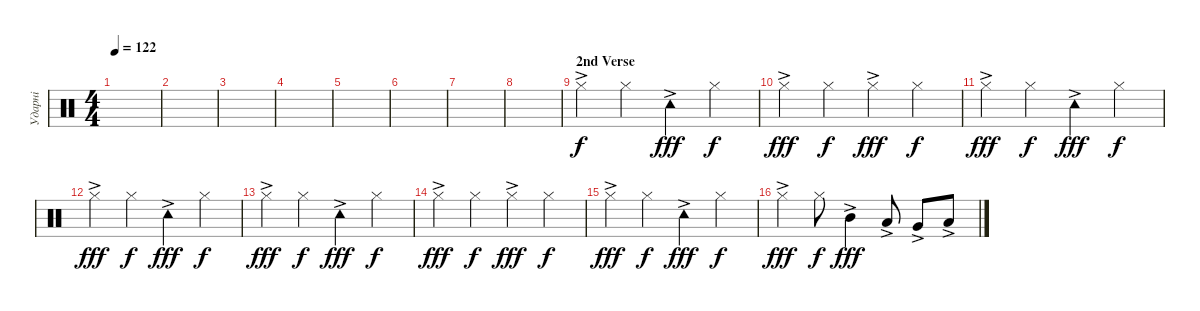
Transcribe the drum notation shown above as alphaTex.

\track ("Ударні" "Ударні") {instrument percussion}
\staff {score}
\articulation defaults
\ts (4 4)
\tempo 122
\clef neutral
\ks c
|
|
|
|
|
|
|
|
\section ("" "2nd Verse")
"Hi-Hat (closed)"{ac}.4 "Hi-Hat (closed)".4{dy f} "Tambourine (hit)"{ac}.4{dy fff} "Hi-Hat (closed)".4{dy f} |
"Hi-Hat (closed)"{ac}.4{dy fff} "Hi-Hat (closed)".4{dy f} "Hi-Hat (closed)"{ac}.4{dy fff} "Hi-Hat (closed)".4{dy f} |
"Hi-Hat (closed)"{ac}.4{dy fff} "Hi-Hat (closed)".4{dy f} "Tambourine (hit)"{ac}.4{dy fff} "Hi-Hat (closed)".4{dy f} |
"Hi-Hat (closed)"{ac}.4{dy fff} "Hi-Hat (closed)".4{dy f} "Tambourine (hit)"{ac}.4{dy fff} "Hi-Hat (closed)".4{dy f} |
"Hi-Hat (closed)"{ac}.4{dy fff} "Hi-Hat (closed)".4{dy f} "Tambourine (hit)"{ac}.4{dy fff} "Hi-Hat (closed)".4{dy f} |
"Hi-Hat (closed)"{ac}.4{dy fff} "Hi-Hat (closed)".4{dy f} "Hi-Hat (closed)"{ac}.4{dy fff} "Hi-Hat (closed)".4{dy f} |
"Hi-Hat (closed)"{ac}.4{dy fff} "Hi-Hat (closed)".4{dy f} "Tambourine (hit)"{ac}.4{dy fff} "Hi-Hat (closed)".4{dy f} |
"Hi-Hat (closed)"{ac}.4{dy fff} "Hi-Hat (closed)".8{dy f} "Mid Tom (hit)"{ac}.4{dy fff} "Low Tom (hit)"{ac}.8 "Very Low Tom (hit)"{ac}.8 "Low Floor Tom (hit)"{ac}.8
